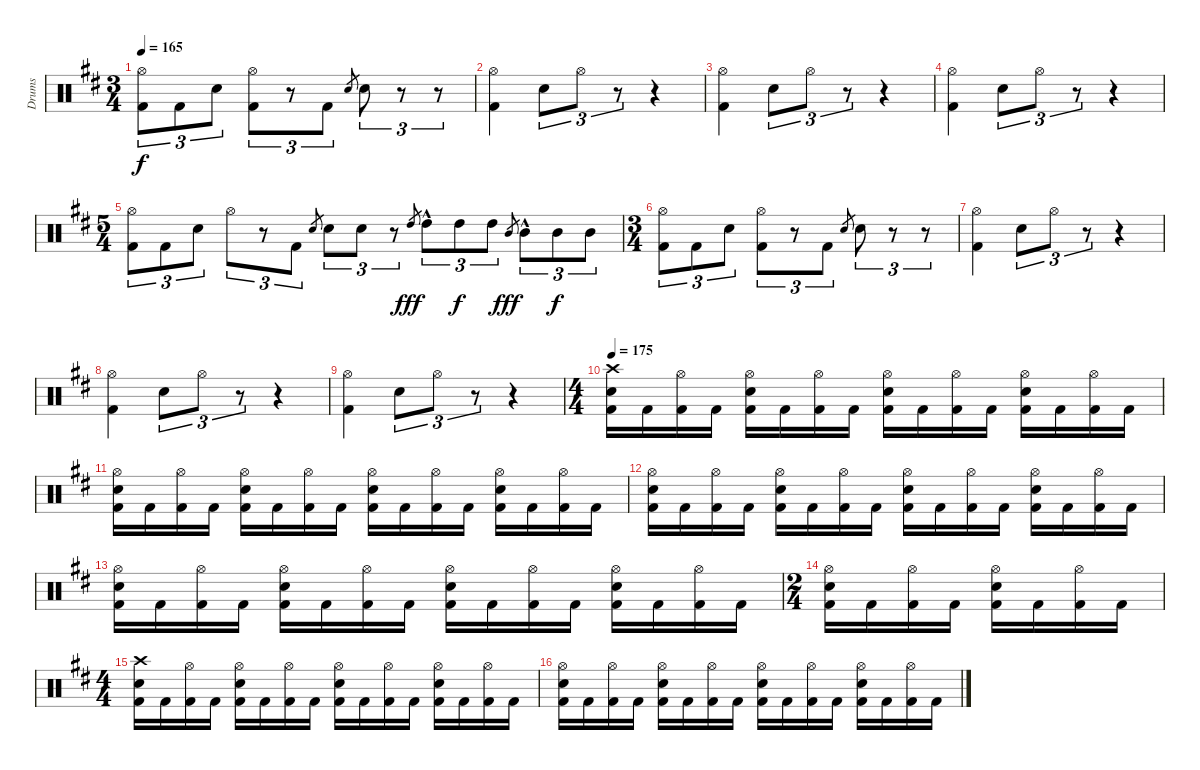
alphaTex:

\track ("Drums" "Drums") {instrument percussion}
\staff {score}
\articulation defaults
\ts (3 4)
\tempo 165
\clef neutral
\ks bminor
("Kick (hit) 2" "Hi-Hat (open)").8{tu (3 2) dy f} "Kick (hit) 2".8{tu (3 2)} "Electric Snare (hit)".8{tu (3 2)} ("Kick (hit) 2" "Hi-Hat (open)").8{tu (3 2)} r.8{tu (3 2)} "Kick (hit) 2".8{tu (3 2)} "Electric Snare (hit)".8{gr} "Electric Snare (hit)".8{tu (3 2)} r.8{tu (3 2)} r.8{tu (3 2)} |
("Kick (hit) 2" "Hi-Hat (open)").4 "Electric Snare (hit)".8{tu (3 2)} "Hi-Hat (open)".8{tu (3 2)} r.8{tu (3 2)} r.4 |
("Kick (hit) 2" "Hi-Hat (open)").4 "Electric Snare (hit)".8{tu (3 2)} "Hi-Hat (open)".8{tu (3 2)} r.8{tu (3 2)} r.4 |
("Kick (hit) 2" "Hi-Hat (open)").4 "Electric Snare (hit)".8{tu (3 2)} "Hi-Hat (open)".8{tu (3 2)} r.8{tu (3 2)} r.4 |
\ts (5 4)
("Kick (hit) 2" "Hi-Hat (open)").8{tu (3 2)} "Kick (hit) 2".8{tu (3 2)} "Electric Snare (hit)".8{tu (3 2)} "Hi-Hat (open)".8{tu (3 2)} r.8{tu (3 2)} "Kick (hit) 2".8{tu (3 2)} "Electric Snare (hit)".8{gr} "Electric Snare (hit)".8{tu (3 2)} "Electric Snare (hit)".8{tu (3 2)} r.8{tu (3 2)} "High Tom (hit)".8{gr dy fff} "High Tom (hit)"{hac}.8{tu (3 2)} "High Tom (hit)".8{tu (3 2) dy f} "High Tom (hit)".8{tu (3 2)} "Mid Tom (hit)".8{gr dy fff} "Mid Tom (hit)"{hac}.8{tu (3 2)} "Mid Tom (hit)".8{tu (3 2) dy f} "Mid Tom (hit)".8{tu (3 2)} |
\ts (3 4)
("Kick (hit) 2" "Hi-Hat (open)").8{tu (3 2)} "Kick (hit) 2".8{tu (3 2)} "Electric Snare (hit)".8{tu (3 2)} ("Kick (hit) 2" "Hi-Hat (open)").8{tu (3 2)} r.8{tu (3 2)} "Kick (hit) 2".8{tu (3 2)} "Electric Snare (hit)".8{gr} "Electric Snare (hit)".8{tu (3 2)} r.8{tu (3 2)} r.8{tu (3 2)} |
("Kick (hit) 2" "Hi-Hat (open)").4 "Electric Snare (hit)".8{tu (3 2)} "Hi-Hat (open)".8{tu (3 2)} r.8{tu (3 2)} r.4 |
("Kick (hit) 2" "Hi-Hat (open)").4 "Electric Snare (hit)".8{tu (3 2)} "Hi-Hat (open)".8{tu (3 2)} r.8{tu (3 2)} r.4 |
("Kick (hit) 2" "Hi-Hat (open)").4 "Electric Snare (hit)".8{tu (3 2)} "Hi-Hat (open)".8{tu (3 2)} r.8{tu (3 2)} r.4 |
\ts (4 4)
\tempo 175
("Kick (hit) 2" "Electric Snare (hit)" "Crash high (hit)").16 "Kick (hit) 2".16 ("Kick (hit) 2" "Hi-Hat (open)").16 "Kick (hit) 2".16 ("Kick (hit) 2" "Electric Snare (hit)" "Hi-Hat (open)").16 "Kick (hit) 2".16 ("Kick (hit) 2" "Hi-Hat (open)").16 "Kick (hit) 2".16 ("Kick (hit) 2" "Electric Snare (hit)" "Hi-Hat (open)").16 "Kick (hit) 2".16 ("Kick (hit) 2" "Hi-Hat (open)").16 "Kick (hit) 2".16 ("Kick (hit) 2" "Electric Snare (hit)" "Hi-Hat (open)").16 "Kick (hit) 2".16 ("Kick (hit) 2" "Hi-Hat (open)").16 "Kick (hit) 2".16 |
("Kick (hit) 2" "Electric Snare (hit)" "Hi-Hat (open)").16 "Kick (hit) 2".16 ("Kick (hit) 2" "Hi-Hat (open)").16 "Kick (hit) 2".16 ("Kick (hit) 2" "Electric Snare (hit)" "Hi-Hat (open)").16 "Kick (hit) 2".16 ("Kick (hit) 2" "Hi-Hat (open)").16 "Kick (hit) 2".16 ("Kick (hit) 2" "Electric Snare (hit)" "Hi-Hat (open)").16 "Kick (hit) 2".16 ("Kick (hit) 2" "Hi-Hat (open)").16 "Kick (hit) 2".16 ("Kick (hit) 2" "Electric Snare (hit)" "Hi-Hat (open)").16 "Kick (hit) 2".16 ("Kick (hit) 2" "Hi-Hat (open)").16 "Kick (hit) 2".16 |
("Kick (hit) 2" "Electric Snare (hit)" "Hi-Hat (open)").16 "Kick (hit) 2".16 ("Kick (hit) 2" "Hi-Hat (open)").16 "Kick (hit) 2".16 ("Kick (hit) 2" "Electric Snare (hit)" "Hi-Hat (open)").16 "Kick (hit) 2".16 ("Kick (hit) 2" "Hi-Hat (open)").16 "Kick (hit) 2".16 ("Kick (hit) 2" "Electric Snare (hit)" "Hi-Hat (open)").16 "Kick (hit) 2".16 ("Kick (hit) 2" "Hi-Hat (open)").16 "Kick (hit) 2".16 ("Kick (hit) 2" "Electric Snare (hit)" "Hi-Hat (open)").16 "Kick (hit) 2".16 ("Kick (hit) 2" "Hi-Hat (open)").16 "Kick (hit) 2".16 |
("Kick (hit) 2" "Electric Snare (hit)" "Hi-Hat (open)").16 "Kick (hit) 2".16 ("Kick (hit) 2" "Hi-Hat (open)").16 "Kick (hit) 2".16 ("Kick (hit) 2" "Electric Snare (hit)" "Hi-Hat (open)").16 "Kick (hit) 2".16 ("Kick (hit) 2" "Hi-Hat (open)").16 "Kick (hit) 2".16 ("Kick (hit) 2" "Electric Snare (hit)" "Hi-Hat (open)").16 "Kick (hit) 2".16 ("Kick (hit) 2" "Hi-Hat (open)").16 "Kick (hit) 2".16 ("Kick (hit) 2" "Electric Snare (hit)" "Hi-Hat (open)").16 "Kick (hit) 2".16 ("Kick (hit) 2" "Hi-Hat (open)").16 "Kick (hit) 2".16 |
\ts (2 4)
("Kick (hit) 2" "Electric Snare (hit)" "Hi-Hat (open)").16 "Kick (hit) 2".16 ("Kick (hit) 2" "Hi-Hat (open)").16 "Kick (hit) 2".16 ("Kick (hit) 2" "Electric Snare (hit)" "Hi-Hat (open)").16 "Kick (hit) 2".16 ("Kick (hit) 2" "Hi-Hat (open)").16 "Kick (hit) 2".16 |
\ts (4 4)
("Kick (hit) 2" "Electric Snare (hit)" "Crash high (hit)").16 "Kick (hit) 2".16 ("Kick (hit) 2" "Hi-Hat (open)").16 "Kick (hit) 2".16 ("Kick (hit) 2" "Electric Snare (hit)" "Hi-Hat (open)").16 "Kick (hit) 2".16 ("Kick (hit) 2" "Hi-Hat (open)").16 "Kick (hit) 2".16 ("Kick (hit) 2" "Electric Snare (hit)" "Hi-Hat (open)").16 "Kick (hit) 2".16 ("Kick (hit) 2" "Hi-Hat (open)").16 "Kick (hit) 2".16 ("Kick (hit) 2" "Electric Snare (hit)" "Hi-Hat (open)").16 "Kick (hit) 2".16 ("Kick (hit) 2" "Hi-Hat (open)").16 "Kick (hit) 2".16 |
("Kick (hit) 2" "Electric Snare (hit)" "Hi-Hat (open)").16 "Kick (hit) 2".16 ("Kick (hit) 2" "Hi-Hat (open)").16 "Kick (hit) 2".16 ("Kick (hit) 2" "Electric Snare (hit)" "Hi-Hat (open)").16 "Kick (hit) 2".16 ("Kick (hit) 2" "Hi-Hat (open)").16 "Kick (hit) 2".16 ("Kick (hit) 2" "Electric Snare (hit)" "Hi-Hat (open)").16 "Kick (hit) 2".16 ("Kick (hit) 2" "Hi-Hat (open)").16 "Kick (hit) 2".16 ("Kick (hit) 2" "Electric Snare (hit)" "Hi-Hat (open)").16 "Kick (hit) 2".16 ("Kick (hit) 2" "Hi-Hat (open)").16 "Kick (hit) 2".16
